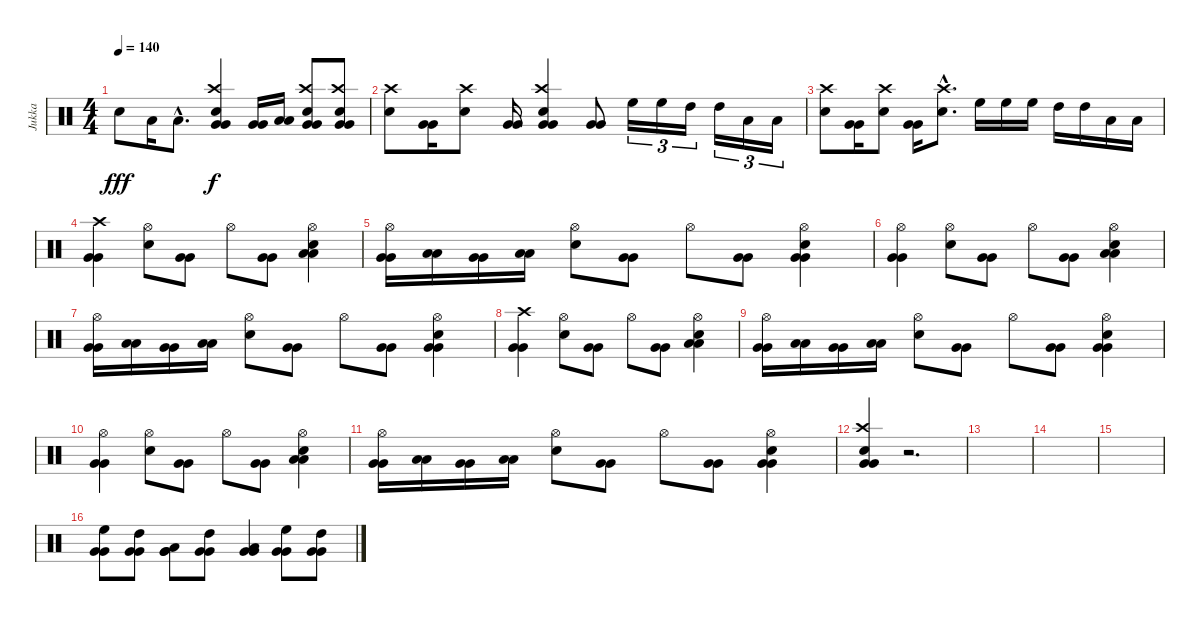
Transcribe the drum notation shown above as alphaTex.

\track ("Jukka" "Jukka") {instrument percussion}
\staff {score}
\articulation defaults
\ts (4 4)
\tempo 140
\clef neutral
\ks c "Electric Snare (hit)".8{dy fff} "Low Tom (hit)".16 "Low Tom (hit)"{hac}.8{d}
("Crash high (hit)" "Electric Snare (hit)" "Very Low Tom (hit)" "Very Low Tom (hit)").4{dy f} ("Very Low Tom (hit)" "Very Low Tom (hit)").16 ("Low Floor Tom (hit)" "Low Floor Tom (hit)").16 ("Crash high (hit)" "Electric Snare (hit)" "Very Low Tom (hit)" "Very Low Tom (hit)").8 ("Crash high (hit)" "Electric Snare (hit)" "Very Low Tom (hit)" "Very Low Tom (hit)").8 |
("Crash high (hit)" "Electric Snare (hit)").8 ("Very Low Tom (hit)" "Very Low Tom (hit)").16 ("Crash high (hit)" "Electric Snare (hit)").8 ("Very Low Tom (hit)" "Very Low Tom (hit)").16 ("Crash high (hit)" "Electric Snare (hit)" "Very Low Tom (hit)" "Very Low Tom (hit)").4 ("Very Low Tom (hit)" "Very Low Tom (hit)").8 "High Floor Tom (hit)".16{tu (3 2)} "High Floor Tom (hit)".16{tu (3 2)} "High Tom (hit)".16{tu (3 2)} "High Tom (hit)".16{tu (3 2)} "Low Tom (hit)".16{tu (3 2)} "Low Tom (hit)".16{tu (3 2)} |
("Crash high (hit)" "Electric Snare (hit)").8 ("Very Low Tom (hit)" "Very Low Tom (hit)").16 ("Crash high (hit)" "Electric Snare (hit)").8 ("Very Low Tom (hit)" "Very Low Tom (hit)").16 ("Crash high (hit)"{hac} "Electric Snare (hit)"{hac}).8{d} "High Floor Tom (hit)".16 "High Floor Tom (hit)".16 "High Floor Tom (hit)".16 "High Tom (hit)".16 "High Tom (hit)".16 "Low Tom (hit)".16 "Low Tom (hit)".16 |
("Crash high (hit)" "Very Low Tom (hit)" "Very Low Tom (hit)").4 ("Hi-Hat (open)" "Electric Snare (hit)").8 ("Very Low Tom (hit)" "Very Low Tom (hit)").8 "Hi-Hat (open)".8 ("Very Low Tom (hit)" "Very Low Tom (hit)").8 ("Hi-Hat (open)" "Electric Snare (hit)" "Low Floor Tom (hit)" "Low Floor Tom (hit)").4 |
("Hi-Hat (open)" "Very Low Tom (hit)" "Very Low Tom (hit)").16 ("Low Floor Tom (hit)" "Low Floor Tom (hit)").16 ("Very Low Tom (hit)" "Very Low Tom (hit)").16 ("Low Floor Tom (hit)" "Low Floor Tom (hit)").16 ("Hi-Hat (open)" "Electric Snare (hit)").8 ("Very Low Tom (hit)" "Very Low Tom (hit)").8 "Hi-Hat (open)".8 ("Very Low Tom (hit)" "Very Low Tom (hit)").8 ("Hi-Hat (open)" "Electric Snare (hit)" "Very Low Tom (hit)" "Very Low Tom (hit)").4 |
("Hi-Hat (open)" "Very Low Tom (hit)" "Very Low Tom (hit)").4 ("Hi-Hat (open)" "Electric Snare (hit)").8 ("Very Low Tom (hit)" "Very Low Tom (hit)").8 "Hi-Hat (open)".8 ("Very Low Tom (hit)" "Very Low Tom (hit)").8 ("Hi-Hat (open)" "Electric Snare (hit)" "Low Floor Tom (hit)" "Low Floor Tom (hit)").4 |
("Hi-Hat (open)" "Very Low Tom (hit)" "Very Low Tom (hit)").16 ("Low Floor Tom (hit)" "Low Floor Tom (hit)").16 ("Very Low Tom (hit)" "Very Low Tom (hit)").16 ("Low Floor Tom (hit)" "Low Floor Tom (hit)").16 ("Hi-Hat (open)" "Electric Snare (hit)").8 ("Very Low Tom (hit)" "Very Low Tom (hit)").8 "Hi-Hat (open)".8 ("Very Low Tom (hit)" "Very Low Tom (hit)").8 ("Hi-Hat (open)" "Electric Snare (hit)" "Very Low Tom (hit)" "Very Low Tom (hit)").4 |
("Crash high (hit)" "Very Low Tom (hit)" "Very Low Tom (hit)").4 ("Hi-Hat (open)" "Electric Snare (hit)").8 ("Very Low Tom (hit)" "Very Low Tom (hit)").8 "Hi-Hat (open)".8 ("Very Low Tom (hit)" "Very Low Tom (hit)").8 ("Hi-Hat (open)" "Electric Snare (hit)" "Low Floor Tom (hit)" "Low Floor Tom (hit)").4 |
("Hi-Hat (open)" "Very Low Tom (hit)" "Very Low Tom (hit)").16 ("Low Floor Tom (hit)" "Low Floor Tom (hit)").16 ("Very Low Tom (hit)" "Very Low Tom (hit)").16 ("Low Floor Tom (hit)" "Low Floor Tom (hit)").16 ("Hi-Hat (open)" "Electric Snare (hit)").8 ("Very Low Tom (hit)" "Very Low Tom (hit)").8 "Hi-Hat (open)".8 ("Very Low Tom (hit)" "Very Low Tom (hit)").8 ("Hi-Hat (open)" "Electric Snare (hit)" "Very Low Tom (hit)" "Very Low Tom (hit)").4 |
("Hi-Hat (open)" "Very Low Tom (hit)" "Very Low Tom (hit)").4 ("Hi-Hat (open)" "Electric Snare (hit)").8 ("Very Low Tom (hit)" "Very Low Tom (hit)").8 "Hi-Hat (open)".8 ("Very Low Tom (hit)" "Very Low Tom (hit)").8 ("Hi-Hat (open)" "Electric Snare (hit)" "Low Floor Tom (hit)" "Low Floor Tom (hit)").4 |
("Hi-Hat (open)" "Very Low Tom (hit)" "Very Low Tom (hit)").16 ("Low Floor Tom (hit)" "Low Floor Tom (hit)").16 ("Very Low Tom (hit)" "Very Low Tom (hit)").16 ("Low Floor Tom (hit)" "Low Floor Tom (hit)").16 ("Hi-Hat (open)" "Electric Snare (hit)").8 ("Very Low Tom (hit)" "Very Low Tom (hit)").8 "Hi-Hat (open)".8 ("Very Low Tom (hit)" "Very Low Tom (hit)").8 ("Hi-Hat (open)" "Electric Snare (hit)" "Very Low Tom (hit)" "Very Low Tom (hit)").4 |
("Crash high (hit)" "Electric Snare (hit)" "Very Low Tom (hit)" "Very Low Tom (hit)").4 r.2{d} |
|
|
|
("High Floor Tom (hit)" "Very Low Tom (hit)" "Very Low Tom (hit)").8 ("High Tom (hit)" "Very Low Tom (hit)" "Very Low Tom (hit)").8 ("Low Tom (hit)" "Very Low Tom (hit)" "Very Low Tom (hit)").8 ("High Tom (hit)" "Very Low Tom (hit)" "Very Low Tom (hit)").8 ("Low Tom (hit)" "Very Low Tom (hit)" "Very Low Tom (hit)").4 ("High Floor Tom (hit)" "Very Low Tom (hit)" "Very Low Tom (hit)").8 ("High Tom (hit)" "Very Low Tom (hit)" "Very Low Tom (hit)").8
